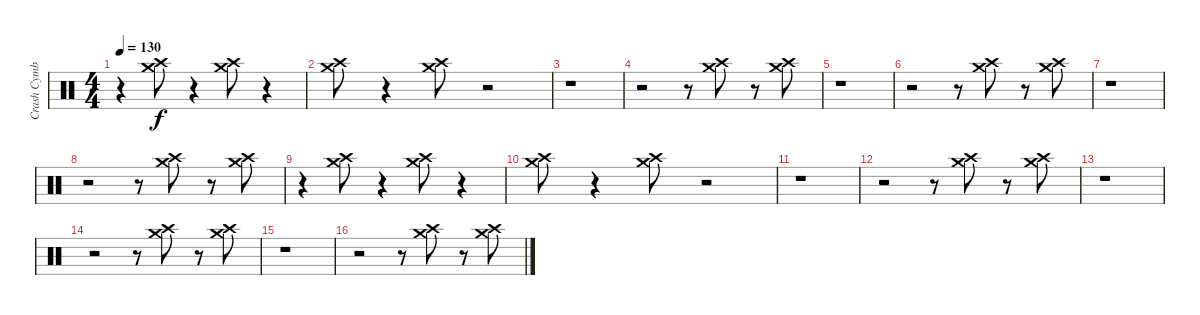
\track ("Crash Cymbal" "Crash Cymb") {instrument percussion}
\staff {score}
\articulation defaults
\ts (4 4)
\tempo 130
\clef neutral
\ks c
r.4{dy f} ("Crash high (hit)" "Crash medium (hit)").8 r.4 ("Crash high (hit)" "Crash medium (hit)").8 r.4 |
("Crash high (hit)" "Crash medium (hit)").8 r.4 ("Crash high (hit)" "Crash medium (hit)").8 r.2 |
r.1 |
r.2 r.8 ("Crash high (hit)" "Crash medium (hit)").8 r.8 ("Crash high (hit)" "Crash medium (hit)").8 |
r.1 |
r.2 r.8 ("Crash high (hit)" "Crash medium (hit)").8 r.8 ("Crash high (hit)" "Crash medium (hit)").8 |
r.1 |
r.2 r.8 ("Crash high (hit)" "Crash medium (hit)").8 r.8 ("Crash high (hit)" "Crash medium (hit)").8 |
r.4 ("Crash high (hit)" "Crash medium (hit)").8 r.4 ("Crash high (hit)" "Crash medium (hit)").8 r.4 |
("Crash high (hit)" "Crash medium (hit)").8 r.4 ("Crash high (hit)" "Crash medium (hit)").8 r.2 |
r.1 |
r.2 r.8 ("Crash high (hit)" "Crash medium (hit)").8 r.8 ("Crash high (hit)" "Crash medium (hit)").8 |
r.1 |
r.2 r.8 ("Crash high (hit)" "Crash medium (hit)").8 r.8 ("Crash high (hit)" "Crash medium (hit)").8 |
r.1 |
r.2 r.8 ("Crash high (hit)" "Crash medium (hit)").8 r.8 ("Crash high (hit)" "Crash medium (hit)").8
